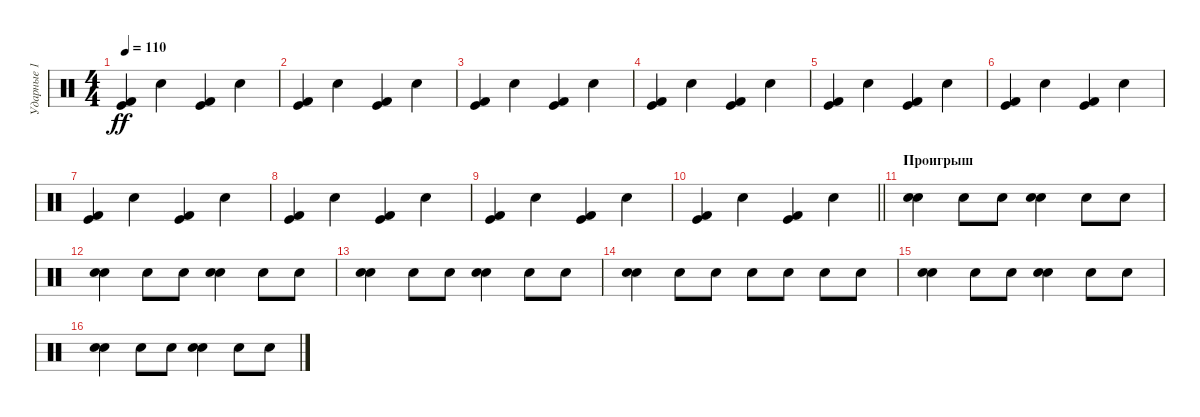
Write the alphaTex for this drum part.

\track ("Ударные 1" "Ударные 1") {instrument percussion}
\staff {score}
\articulation defaults
\ts (4 4)
\tempo 110
\clef neutral
\ks c
("Kick (hit) 2" "Kick (hit)").4{dy ff} "Snare (hit) 2".4 ("Kick (hit) 2" "Kick (hit)").4 "Snare (hit) 2".4 |
("Kick (hit) 2" "Kick (hit)").4 "Snare (hit) 2".4 ("Kick (hit) 2" "Kick (hit)").4 "Snare (hit) 2".4 |
("Kick (hit) 2" "Kick (hit)").4 "Snare (hit) 2".4 ("Kick (hit) 2" "Kick (hit)").4 "Snare (hit) 2".4 |
("Kick (hit) 2" "Kick (hit)").4 "Snare (hit) 2".4 ("Kick (hit) 2" "Kick (hit)").4 "Snare (hit) 2".4 |
("Kick (hit) 2" "Kick (hit)").4 "Snare (hit) 2".4 ("Kick (hit) 2" "Kick (hit)").4 "Snare (hit) 2".4 |
("Kick (hit) 2" "Kick (hit)").4 "Snare (hit) 2".4 ("Kick (hit) 2" "Kick (hit)").4 "Snare (hit) 2".4 |
("Kick (hit) 2" "Kick (hit)").4 "Snare (hit) 2".4 ("Kick (hit) 2" "Kick (hit)").4 "Snare (hit) 2".4 |
("Kick (hit) 2" "Kick (hit)").4 "Snare (hit) 2".4 ("Kick (hit) 2" "Kick (hit)").4 "Snare (hit) 2".4 |
("Kick (hit) 2" "Kick (hit)").4 "Snare (hit) 2".4 ("Kick (hit) 2" "Kick (hit)").4 "Snare (hit) 2".4 |
\barLineRight lightlight
("Kick (hit) 2" "Kick (hit)").4 "Snare (hit) 2".4 ("Kick (hit) 2" "Kick (hit)").4 "Snare (hit) 2".4 |
\section ("" "Проигрыш")
("Snare (hit) 2" "Electric Snare (hit)").4 "Electric Snare (hit)".8 "Electric Snare (hit)".8 ("Snare (hit) 2" "Electric Snare (hit)").4 "Electric Snare (hit)".8 "Electric Snare (hit)".8 |
("Snare (hit) 2" "Electric Snare (hit)").4 "Electric Snare (hit)".8 "Electric Snare (hit)".8 ("Snare (hit) 2" "Electric Snare (hit)").4 "Electric Snare (hit)".8 "Electric Snare (hit)".8 |
("Snare (hit) 2" "Electric Snare (hit)").4 "Electric Snare (hit)".8 "Electric Snare (hit)".8 ("Snare (hit) 2" "Electric Snare (hit)").4 "Electric Snare (hit)".8 "Electric Snare (hit)".8 |
("Snare (hit) 2" "Electric Snare (hit)").4 "Electric Snare (hit)".8 "Electric Snare (hit)".8 "Electric Snare (hit)".8 "Electric Snare (hit)".8 "Electric Snare (hit)".8 "Electric Snare (hit)".8 |
("Snare (hit) 2" "Electric Snare (hit)").4 "Electric Snare (hit)".8 "Electric Snare (hit)".8 ("Snare (hit) 2" "Electric Snare (hit)").4 "Electric Snare (hit)".8 "Electric Snare (hit)".8 |
("Snare (hit) 2" "Electric Snare (hit)").4 "Electric Snare (hit)".8 "Electric Snare (hit)".8 ("Snare (hit) 2" "Electric Snare (hit)").4 "Electric Snare (hit)".8 "Electric Snare (hit)".8
